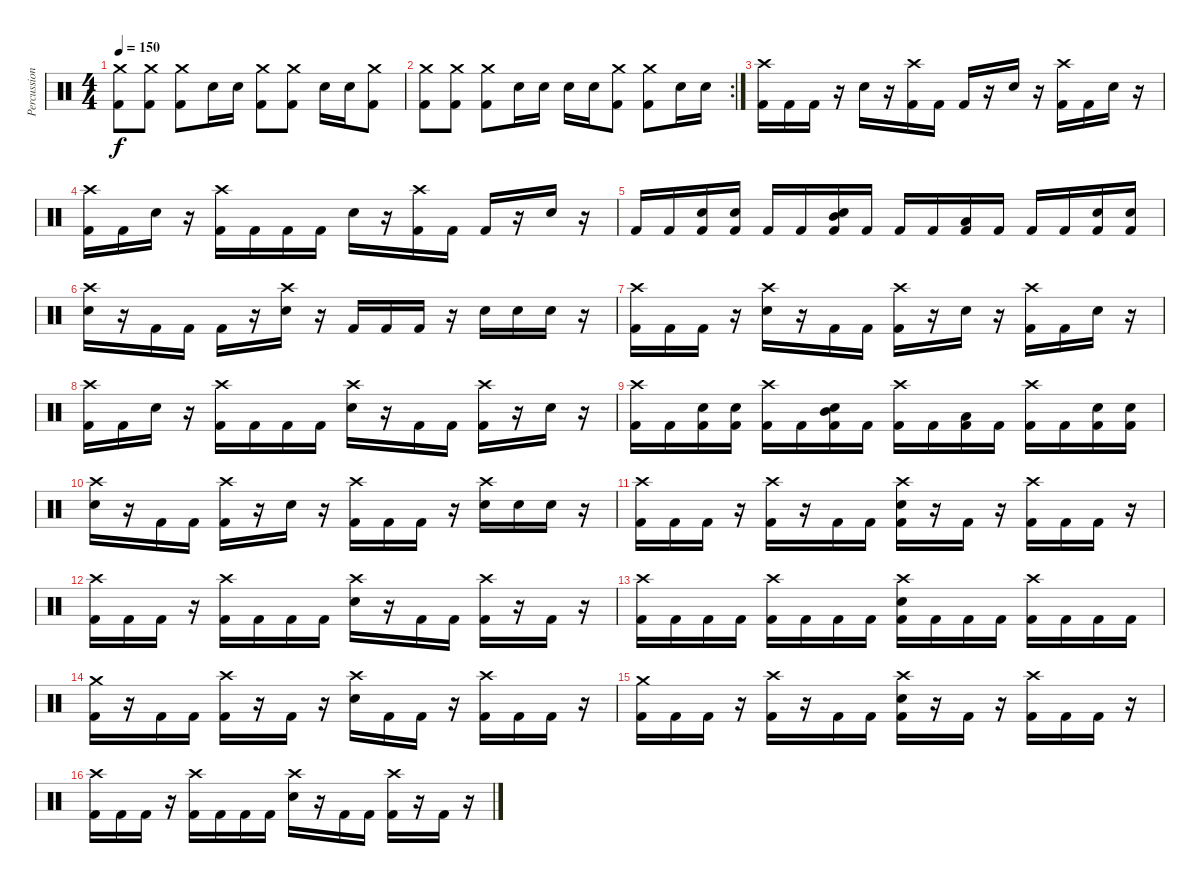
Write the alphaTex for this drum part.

\track ("Percussion" "Percussion") {instrument percussion}
\staff {score}
\articulation defaults
\ts (4 4)
\tempo 150
\clef neutral
\ks c
("Crash medium (hit)" "Kick (hit) 2").8{dy f} ("Crash medium (hit)" "Kick (hit) 2").8 ("Crash medium (hit)" "Kick (hit) 2").8 "Electric Snare (hit)".16 "Electric Snare (hit)".16 ("Crash medium (hit)" "Kick (hit) 2").8 ("Crash medium (hit)" "Kick (hit) 2").8 "Electric Snare (hit)".16 "Electric Snare (hit)".16 ("Crash medium (hit)" "Kick (hit) 2").8 |
\rc 2
("Crash medium (hit)" "Kick (hit) 2").8 ("Crash medium (hit)" "Kick (hit) 2").8 ("Crash medium (hit)" "Kick (hit) 2").8 "Electric Snare (hit)".16 "Electric Snare (hit)".16 "Electric Snare (hit)".16 "Electric Snare (hit)".16 ("Crash medium (hit)" "Kick (hit) 2").8 ("Crash medium (hit)" "Kick (hit) 2").8 "Electric Snare (hit)".16 "Electric Snare (hit)".16 |
("Crash high (hit)" "Kick (hit) 2").16 "Kick (hit) 2".16 "Kick (hit) 2".16 r.16 "Electric Snare (hit)".16 r.16 ("Crash high (hit)" "Kick (hit) 2").16 "Kick (hit) 2".16 "Kick (hit) 2".16 r.16 "Electric Snare (hit)".16 r.16 ("Crash high (hit)" "Kick (hit) 2").16 "Kick (hit) 2".16 "Electric Snare (hit)".16 r.16 |
("Crash high (hit)" "Kick (hit) 2").16 "Kick (hit) 2".16 "Electric Snare (hit)".16 r.16 ("Crash high (hit)" "Kick (hit) 2").16 "Kick (hit) 2".16 "Kick (hit) 2".16 "Kick (hit) 2".16 "Electric Snare (hit)".16 r.16 ("Crash high (hit)" "Kick (hit) 2").16 "Kick (hit) 2".16 "Kick (hit) 2".16 r.16 "Electric Snare (hit)".16 r.16 |
"Kick (hit) 2".16 "Kick (hit) 2".16 ("Electric Snare (hit)" "Kick (hit) 2").16 ("Electric Snare (hit)" "Kick (hit) 2").16 "Kick (hit) 2".16 "Kick (hit) 2".16 ("Snare (hit) 2" "Mid Tom (hit)" "Kick (hit) 2").16 "Kick (hit) 2".16 "Kick (hit) 2".16 "Kick (hit) 2".16 ("Low Tom (hit)" "Kick (hit) 2").16 "Kick (hit) 2".16 "Kick (hit) 2".16 "Kick (hit) 2".16 ("Electric Snare (hit)" "Kick (hit) 2").16 ("Electric Snare (hit)" "Kick (hit) 2").16 |
("Crash high (hit)" "Electric Snare (hit)").16 r.16 "Kick (hit) 2".16 "Kick (hit) 2".16 "Kick (hit) 2".16 r.16 ("Crash high (hit)" "Electric Snare (hit)").16 r.16 "Kick (hit) 2".16 "Kick (hit) 2".16 "Kick (hit) 2".16 r.16 "Electric Snare (hit)".16 "Electric Snare (hit)".16 "Electric Snare (hit)".16 r.16 |
("Crash high (hit)" "Kick (hit) 2").16 "Kick (hit) 2".16 "Kick (hit) 2".16 r.16 ("Crash high (hit)" "Electric Snare (hit)").16 r.16 "Kick (hit) 2".16 "Kick (hit) 2".16 ("Crash high (hit)" "Kick (hit) 2").16 r.16 "Electric Snare (hit)".16 r.16 ("Crash high (hit)" "Kick (hit) 2").16 "Kick (hit) 2".16 "Electric Snare (hit)".16 r.16 |
("Crash high (hit)" "Kick (hit) 2").16 "Kick (hit) 2".16 "Electric Snare (hit)".16 r.16 ("Crash high (hit)" "Kick (hit) 2").16 "Kick (hit) 2".16 "Kick (hit) 2".16 "Kick (hit) 2".16 ("Crash high (hit)" "Electric Snare (hit)").16 r.16 "Kick (hit) 2".16 "Kick (hit) 2".16 ("Crash high (hit)" "Kick (hit) 2").16 r.16 "Electric Snare (hit)".16 r.16 |
("Crash high (hit)" "Kick (hit) 2").16 "Kick (hit) 2".16 ("Electric Snare (hit)" "Kick (hit) 2").16 ("Electric Snare (hit)" "Kick (hit) 2").16 ("Crash high (hit)" "Kick (hit) 2").16 "Kick (hit) 2".16 ("Snare (hit) 2" "Mid Tom (hit)" "Kick (hit) 2").16 "Kick (hit) 2".16 ("Crash high (hit)" "Kick (hit) 2").16 "Kick (hit) 2".16 ("Low Tom (hit)" "Kick (hit) 2").16 "Kick (hit) 2".16 ("Crash high (hit)" "Kick (hit) 2").16 "Kick (hit) 2".16 ("Electric Snare (hit)" "Kick (hit) 2").16 ("Electric Snare (hit)" "Kick (hit) 2").16 |
("Crash high (hit)" "Electric Snare (hit)").16 r.16 "Kick (hit) 2".16 "Kick (hit) 2".16 ("Crash high (hit)" "Kick (hit) 2").16 r.16 "Electric Snare (hit)".16 r.16 ("Crash high (hit)" "Kick (hit) 2").16 "Kick (hit) 2".16 "Kick (hit) 2".16 r.16 ("Crash high (hit)" "Electric Snare (hit)").16 "Electric Snare (hit)".16 "Electric Snare (hit)".16 r.16 |
("Crash high (hit)" "Kick (hit) 2").16 "Kick (hit) 2".16 "Kick (hit) 2".16 r.16 ("Crash high (hit)" "Kick (hit) 2").16 r.16 "Kick (hit) 2".16 "Kick (hit) 2".16 ("Crash high (hit)" "Electric Snare (hit)" "Kick (hit) 2").16 r.16 "Kick (hit) 2".16 r.16 ("Crash high (hit)" "Kick (hit) 2").16 "Kick (hit) 2".16 "Kick (hit) 2".16 r.16 |
("Crash high (hit)" "Kick (hit) 2").16 "Kick (hit) 2".16 "Kick (hit) 2".16 r.16 ("Crash high (hit)" "Kick (hit) 2").16 "Kick (hit) 2".16 "Kick (hit) 2".16 "Kick (hit) 2".16 ("Crash high (hit)" "Electric Snare (hit)").16 r.16 "Kick (hit) 2".16 "Kick (hit) 2".16 ("Crash high (hit)" "Kick (hit) 2").16 r.16 "Kick (hit) 2".16 r.16 |
("Crash high (hit)" "Kick (hit) 2").16 "Kick (hit) 2".16 "Kick (hit) 2".16 "Kick (hit) 2".16 ("Crash high (hit)" "Kick (hit) 2").16 "Kick (hit) 2".16 "Kick (hit) 2".16 "Kick (hit) 2".16 ("Crash high (hit)" "Electric Snare (hit)" "Kick (hit) 2").16 "Kick (hit) 2".16 "Kick (hit) 2".16 "Kick (hit) 2".16 ("Crash high (hit)" "Kick (hit) 2").16 "Kick (hit) 2".16 "Kick (hit) 2".16 "Kick (hit) 2".16 |
("Crash medium (hit)" "Kick (hit) 2").16 r.16 "Kick (hit) 2".16 "Kick (hit) 2".16 ("Crash high (hit)" "Kick (hit) 2").16 r.16 "Kick (hit) 2".16 r.16 ("Crash high (hit)" "Electric Snare (hit)").16 "Kick (hit) 2".16 "Kick (hit) 2".16 r.16 ("Crash high (hit)" "Kick (hit) 2").16 "Kick (hit) 2".16 "Kick (hit) 2".16 r.16 |
("Crash medium (hit)" "Kick (hit) 2").16 "Kick (hit) 2".16 "Kick (hit) 2".16 r.16 ("Crash high (hit)" "Kick (hit) 2").16 r.16 "Kick (hit) 2".16 "Kick (hit) 2".16 ("Crash high (hit)" "Electric Snare (hit)" "Kick (hit) 2").16 r.16 "Kick (hit) 2".16 r.16 ("Crash high (hit)" "Kick (hit) 2").16 "Kick (hit) 2".16 "Kick (hit) 2".16 r.16 |
("Crash high (hit)" "Kick (hit) 2").16 "Kick (hit) 2".16 "Kick (hit) 2".16 r.16 ("Crash high (hit)" "Kick (hit) 2").16 "Kick (hit) 2".16 "Kick (hit) 2".16 "Kick (hit) 2".16 ("Crash high (hit)" "Electric Snare (hit)").16 r.16 "Kick (hit) 2".16 "Kick (hit) 2".16 ("Crash high (hit)" "Kick (hit) 2").16 r.16 "Kick (hit) 2".16 r.16
